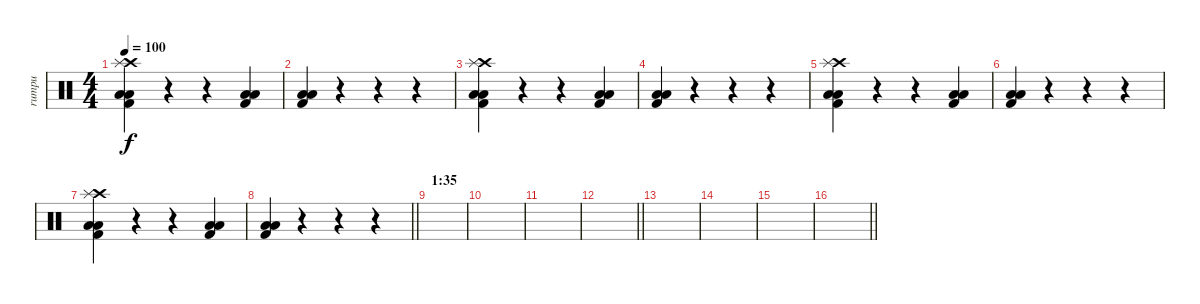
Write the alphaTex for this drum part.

\track ("rumpu" "rumpu") {instrument percussion}
\staff {score}
\articulation defaults
\ts (4 4)
\tempo 100
\clef neutral
\ks c
("Kick (hit) 2" "Low Tom (hit)" "Low Floor Tom (hit)" "Crash high (hit)" "Splash (hit)").4{dy f} r.4 r.4 ("Kick (hit) 2" "Low Tom (hit)" "Low Floor Tom (hit)").4 |
("Kick (hit) 2" "Low Tom (hit)" "Low Floor Tom (hit)").4 r.4 r.4 r.4 |
("Kick (hit) 2" "Low Tom (hit)" "Low Floor Tom (hit)" "Crash high (hit)" "Splash (hit)").4 r.4 r.4 ("Kick (hit) 2" "Low Tom (hit)" "Low Floor Tom (hit)").4 |
("Kick (hit) 2" "Low Tom (hit)" "Low Floor Tom (hit)").4 r.4 r.4 r.4 |
("Kick (hit) 2" "Low Tom (hit)" "Low Floor Tom (hit)" "Crash high (hit)" "Splash (hit)").4 r.4 r.4 ("Kick (hit) 2" "Low Tom (hit)" "Low Floor Tom (hit)").4 |
("Kick (hit) 2" "Low Tom (hit)" "Low Floor Tom (hit)").4 r.4 r.4 r.4 |
("Kick (hit) 2" "Low Tom (hit)" "Low Floor Tom (hit)" "Crash high (hit)" "Splash (hit)").4 r.4 r.4 ("Kick (hit) 2" "Low Tom (hit)" "Low Floor Tom (hit)").4 |
\barLineRight lightlight
("Kick (hit) 2" "Low Tom (hit)" "Low Floor Tom (hit)").4 r.4 r.4 r.4 |
\section ("" "1:35")
|
|
|
\barLineRight lightlight
|
|
|
|
\barLineRight lightlight
